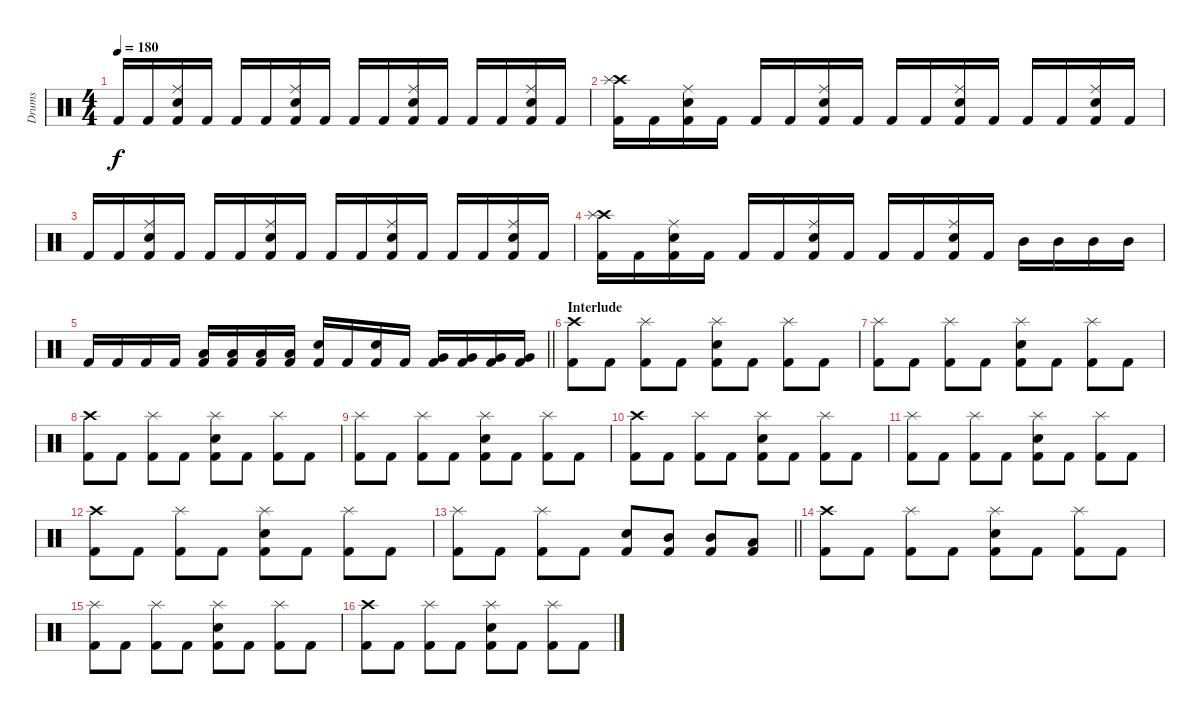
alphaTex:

\track ("Drums" "Drums") {instrument percussion}
\staff {score}
\articulation defaults
\ts (4 4)
\tempo 180
\clef neutral
\ks c "Kick (hit) 2".16{dy f} "Kick (hit) 2".16
("Ride (middle)" "Electric Snare (hit)" "Kick (hit) 2").16 "Kick (hit) 2".16 "Kick (hit) 2".16 "Kick (hit) 2".16 ("Ride (middle)" "Electric Snare (hit)" "Kick (hit) 2").16 "Kick (hit) 2".16 "Kick (hit) 2".16 "Kick (hit) 2".16 ("Ride (middle)" "Electric Snare (hit)" "Kick (hit) 2").16 "Kick (hit) 2".16 "Kick (hit) 2".16 "Kick (hit) 2".16 ("Ride (middle)" "Electric Snare (hit)" "Kick (hit) 2").16 "Kick (hit) 2".16 |
("Crash high (hit)" "Splash (hit)" "Kick (hit) 2").16 "Kick (hit) 2".16 ("Ride (middle)" "Electric Snare (hit)" "Kick (hit) 2").16 "Kick (hit) 2".16 "Kick (hit) 2".16 "Kick (hit) 2".16 ("Ride (middle)" "Electric Snare (hit)" "Kick (hit) 2").16 "Kick (hit) 2".16 "Kick (hit) 2".16 "Kick (hit) 2".16 ("Ride (middle)" "Electric Snare (hit)" "Kick (hit) 2").16 "Kick (hit) 2".16 "Kick (hit) 2".16 "Kick (hit) 2".16 ("Ride (middle)" "Electric Snare (hit)" "Kick (hit) 2").16 "Kick (hit) 2".16 |
"Kick (hit) 2".16 "Kick (hit) 2".16 ("Ride (middle)" "Electric Snare (hit)" "Kick (hit) 2").16 "Kick (hit) 2".16 "Kick (hit) 2".16 "Kick (hit) 2".16 ("Ride (middle)" "Electric Snare (hit)" "Kick (hit) 2").16 "Kick (hit) 2".16 "Kick (hit) 2".16 "Kick (hit) 2".16 ("Ride (middle)" "Electric Snare (hit)" "Kick (hit) 2").16 "Kick (hit) 2".16 "Kick (hit) 2".16 "Kick (hit) 2".16 ("Ride (middle)" "Electric Snare (hit)" "Kick (hit) 2").16 "Kick (hit) 2".16 |
("Crash high (hit)" "Splash (hit)" "Kick (hit) 2").16 "Kick (hit) 2".16 ("Ride (middle)" "Electric Snare (hit)" "Kick (hit) 2").16 "Kick (hit) 2".16 "Kick (hit) 2".16 "Kick (hit) 2".16 ("Ride (middle)" "Electric Snare (hit)" "Kick (hit) 2").16 "Kick (hit) 2".16 "Kick (hit) 2".16 "Kick (hit) 2".16 ("Ride (middle)" "Electric Snare (hit)" "Kick (hit) 2").16 "Kick (hit) 2".16 "Mid Tom (hit)".16 "Mid Tom (hit)".16 "Mid Tom (hit)".16 "Mid Tom (hit)".16 |
\barLineRight lightlight "Kick (hit) 2".16 "Kick (hit) 2".16 "Kick (hit) 2".16 "Kick (hit) 2".16
("Low Tom (hit)" "Kick (hit) 2").16 ("Low Tom (hit)" "Kick (hit) 2").16 ("Low Tom (hit)" "Kick (hit) 2").16 ("Low Tom (hit)" "Kick (hit) 2").16 ("Electric Snare (hit)" "Kick (hit) 2").16 "Kick (hit) 2".16 ("Electric Snare (hit)" "Kick (hit) 2").16 "Kick (hit) 2".16 ("Very Low Tom (hit)" "Kick (hit) 2").16 ("Very Low Tom (hit)" "Kick (hit) 2").16 ("Very Low Tom (hit)" "Kick (hit) 2").16 ("Very Low Tom (hit)" "Kick (hit) 2").16 |
\section ("" "Interlude")
("Crash high (hit)" "Kick (hit) 2").8 "Kick (hit) 2".8 ("Splash (hit)" "Kick (hit) 2").8 "Kick (hit) 2".8 ("Splash (hit)" "Electric Snare (hit)" "Kick (hit) 2").8 "Kick (hit) 2".8 ("Splash (hit)" "Kick (hit) 2").8 "Kick (hit) 2".8 |
("Splash (hit)" "Kick (hit) 2").8 "Kick (hit) 2".8 ("Splash (hit)" "Kick (hit) 2").8 "Kick (hit) 2".8 ("Splash (hit)" "Electric Snare (hit)" "Kick (hit) 2").8 "Kick (hit) 2".8 ("Splash (hit)" "Kick (hit) 2").8 "Kick (hit) 2".8 |
("Crash high (hit)" "Kick (hit) 2").8 "Kick (hit) 2".8 ("Splash (hit)" "Kick (hit) 2").8 "Kick (hit) 2".8 ("Splash (hit)" "Electric Snare (hit)" "Kick (hit) 2").8 "Kick (hit) 2".8 ("Splash (hit)" "Kick (hit) 2").8 "Kick (hit) 2".8 |
("Splash (hit)" "Kick (hit) 2").8 "Kick (hit) 2".8 ("Splash (hit)" "Kick (hit) 2").8 "Kick (hit) 2".8 ("Splash (hit)" "Electric Snare (hit)" "Kick (hit) 2").8 "Kick (hit) 2".8 ("Splash (hit)" "Kick (hit) 2").8 "Kick (hit) 2".8 |
("Crash high (hit)" "Kick (hit) 2").8 "Kick (hit) 2".8 ("Splash (hit)" "Kick (hit) 2").8 "Kick (hit) 2".8 ("Splash (hit)" "Electric Snare (hit)" "Kick (hit) 2").8 "Kick (hit) 2".8 ("Splash (hit)" "Kick (hit) 2").8 "Kick (hit) 2".8 |
("Splash (hit)" "Kick (hit) 2").8 "Kick (hit) 2".8 ("Splash (hit)" "Kick (hit) 2").8 "Kick (hit) 2".8 ("Splash (hit)" "Electric Snare (hit)" "Kick (hit) 2").8 "Kick (hit) 2".8 ("Splash (hit)" "Kick (hit) 2").8 "Kick (hit) 2".8 |
("Crash high (hit)" "Kick (hit) 2").8 "Kick (hit) 2".8 ("Splash (hit)" "Kick (hit) 2").8 "Kick (hit) 2".8 ("Splash (hit)" "Electric Snare (hit)" "Kick (hit) 2").8 "Kick (hit) 2".8 ("Splash (hit)" "Kick (hit) 2").8 "Kick (hit) 2".8 |
\barLineRight lightlight
("Splash (hit)" "Kick (hit) 2").8 "Kick (hit) 2".8 ("Splash (hit)" "Kick (hit) 2").8 "Kick (hit) 2".8 ("Electric Snare (hit)" "Kick (hit) 2").8 ("Mid Tom (hit)" "Kick (hit) 2").8 ("Mid Tom (hit)" "Kick (hit) 2").8 ("Low Tom (hit)" "Kick (hit) 2").8 |
("Crash high (hit)" "Kick (hit) 2").8 "Kick (hit) 2".8 ("Splash (hit)" "Kick (hit) 2").8 "Kick (hit) 2".8 ("Splash (hit)" "Electric Snare (hit)" "Kick (hit) 2").8 "Kick (hit) 2".8 ("Splash (hit)" "Kick (hit) 2").8 "Kick (hit) 2".8 |
("Splash (hit)" "Kick (hit) 2").8 "Kick (hit) 2".8 ("Splash (hit)" "Kick (hit) 2").8 "Kick (hit) 2".8 ("Splash (hit)" "Electric Snare (hit)" "Kick (hit) 2").8 "Kick (hit) 2".8 ("Splash (hit)" "Kick (hit) 2").8 "Kick (hit) 2".8 |
("Crash high (hit)" "Kick (hit) 2").8 "Kick (hit) 2".8 ("Splash (hit)" "Kick (hit) 2").8 "Kick (hit) 2".8 ("Splash (hit)" "Electric Snare (hit)" "Kick (hit) 2").8 "Kick (hit) 2".8 ("Splash (hit)" "Kick (hit) 2").8 "Kick (hit) 2".8
